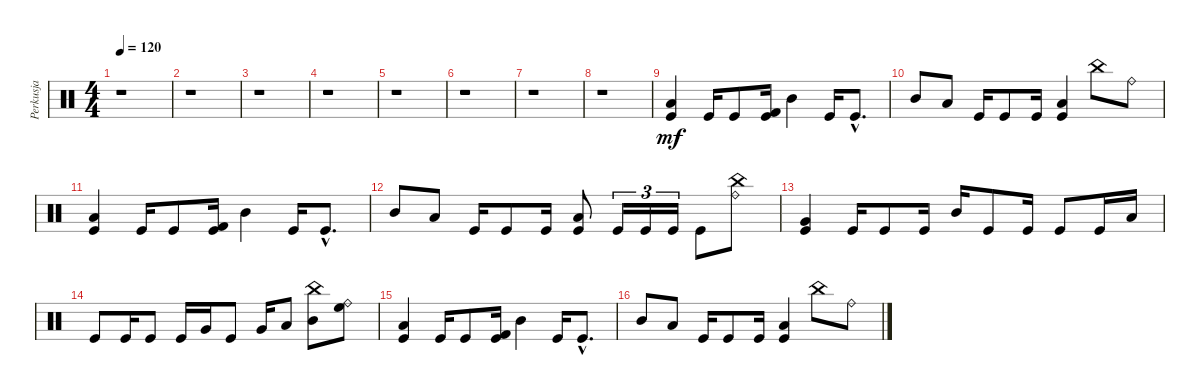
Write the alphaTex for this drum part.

\track ("Perkusja" "Perkusja") {instrument percussion}
\staff {score}
\articulation defaults
\ts (4 4)
\tempo 120
\clef neutral
\ks c
r.1{dy mf} |
r.1 |
r.1 |
r.1 |
r.1 |
r.1 |
r.1 |
r.1 |
("Low Tom (hit)" "Kick (hit)").4 "Kick (hit)".16 "Kick (hit)".8 ("Kick (hit) 2" "Kick (hit)").16 "Mid Tom (hit)".4 "Kick (hit)".16 "Kick (hit)"{hac}.8{d} |
"Mid Tom (hit)".8 "Low Tom (hit)".8 "Kick (hit)".16 "Kick (hit)".8 "Kick (hit)".16 ("Low Tom (hit)" "Kick (hit)").4 "China (hit)".8 "Ride (bell)".8 |
("Low Tom (hit)" "Kick (hit)").4 "Kick (hit)".16 "Kick (hit)".8 ("Kick (hit) 2" "Kick (hit)").16 "Mid Tom (hit)".4 "Kick (hit)".16 "Kick (hit)"{hac}.8{d} |
"Mid Tom (hit)".8 "Low Tom (hit)".8 "Kick (hit)".16 "Kick (hit)".8 "Kick (hit)".16 ("Low Tom (hit)" "Kick (hit)").8 "Kick (hit)".16{tu (3 2)} "Kick (hit)".16{tu (3 2)} "Kick (hit)".16{tu (3 2)} "Kick (hit)".8 ("China (hit)" "Ride (bell)").8 |
("Very Low Tom (hit)" "Kick (hit)").4 "Kick (hit)".16 "Kick (hit)".8 "Kick (hit)".16 "Mid Tom (hit)".16 "Kick (hit)".8 "Kick (hit)".16 "Kick (hit)".8 "Kick (hit)".16 "Low Tom (hit)".16 |
"Kick (hit)".8 "Kick (hit)".16 "Kick (hit)".8 "Kick (hit)".16 "Very Low Tom (hit)".16 "Kick (hit)".8 "Very Low Tom (hit)".16 "Low Tom (hit)".8 ("Mid Tom (hit)" "China (hit)").8 ("High Floor Tom (hit)" "Ride (bell)").8 |
("Low Tom (hit)" "Kick (hit)").4 "Kick (hit)".16 "Kick (hit)".8 ("Kick (hit) 2" "Kick (hit)").16 "Mid Tom (hit)".4 "Kick (hit)".16 "Kick (hit)"{hac}.8{d} |
"Mid Tom (hit)".8 "Low Tom (hit)".8 "Kick (hit)".16 "Kick (hit)".8 "Kick (hit)".16 ("Low Tom (hit)" "Kick (hit)").4 "China (hit)".8 "Ride (bell)".8
